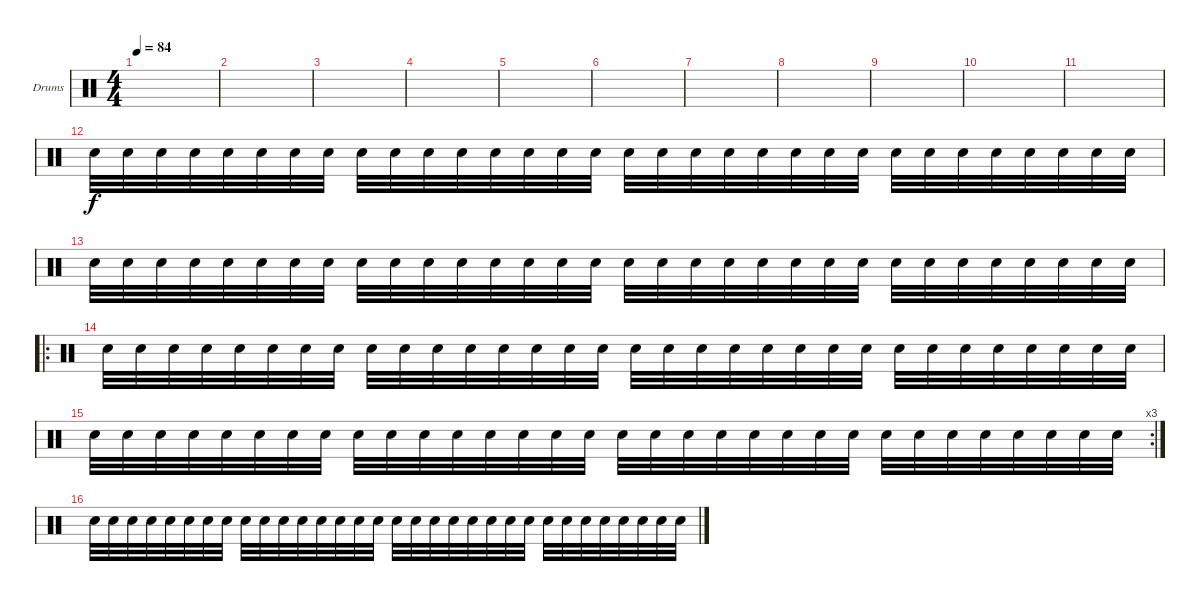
\defaultSystemsLayout 4
\bracketExtendMode groupsimilarinstruments
\firstSystemTrackNameOrientation horizontal
\otherSystemsTrackNameOrientation horizontal
\track ("Drumkit" "Drums") {instrument percussion}
\staff {score}
\articulation defaults
\ts (4 4)
\tempo 84
\clef neutral
\scale
0.333333
\ks c
|
\scale
0.333333 |
\scale
0.333333 |
\scale
0.333333 |
\scale
0.333333 |
\scale
0.333333 |
\scale
0.333333 |
\scale
0.333333 |
\scale
0.333333 |
\scale
0.333333 |
\scale
0.333333 |
\scale
0.311475 "Snare (hit) 2".32 "Snare (hit) 2".32 "Snare (hit) 2".32 "Snare (hit) 2".32 "Snare (hit) 2".32 "Snare (hit) 2".32 "Snare (hit) 2".32 "Snare (hit) 2".32 "Snare (hit) 2".32 "Snare (hit) 2".32 "Snare (hit) 2".32 "Snare (hit) 2".32 "Snare (hit) 2".32 "Snare (hit) 2".32 "Snare (hit) 2".32 "Snare (hit) 2".32 "Snare (hit) 2".32 "Snare (hit) 2".32 "Snare (hit) 2".32 "Snare (hit) 2".32 "Snare (hit) 2".32 "Snare (hit) 2".32 "Snare (hit) 2".32 "Snare (hit) 2".32 "Snare (hit) 2".32 "Snare (hit) 2".32 "Snare (hit) 2".32 "Snare (hit) 2".32 "Snare (hit) 2".32 "Snare (hit) 2".32 "Snare (hit) 2".32 "Snare (hit) 2".32 |
\scale
0.311475 "Snare (hit) 2".32 "Snare (hit) 2".32 "Snare (hit) 2".32 "Snare (hit) 2".32 "Snare (hit) 2".32 "Snare (hit) 2".32 "Snare (hit) 2".32 "Snare (hit) 2".32 "Snare (hit) 2".32 "Snare (hit) 2".32 "Snare (hit) 2".32 "Snare (hit) 2".32 "Snare (hit) 2".32 "Snare (hit) 2".32 "Snare (hit) 2".32 "Snare (hit) 2".32 "Snare (hit) 2".32 "Snare (hit) 2".32 "Snare (hit) 2".32 "Snare (hit) 2".32 "Snare (hit) 2".32 "Snare (hit) 2".32 "Snare (hit) 2".32 "Snare (hit) 2".32 "Snare (hit) 2".32 "Snare (hit) 2".32 "Snare (hit) 2".32 "Snare (hit) 2".32 "Snare (hit) 2".32 "Snare (hit) 2".32 "Snare (hit) 2".32 "Snare (hit) 2".32 |
\ro
\scale
0.377049 "Snare (hit) 2".32 "Snare (hit) 2".32 "Snare (hit) 2".32 "Snare (hit) 2".32 "Snare (hit) 2".32 "Snare (hit) 2".32 "Snare (hit) 2".32 "Snare (hit) 2".32 "Snare (hit) 2".32 "Snare (hit) 2".32 "Snare (hit) 2".32 "Snare (hit) 2".32 "Snare (hit) 2".32 "Snare (hit) 2".32 "Snare (hit) 2".32 "Snare (hit) 2".32 "Snare (hit) 2".32 "Snare (hit) 2".32 "Snare (hit) 2".32 "Snare (hit) 2".32 "Snare (hit) 2".32 "Snare (hit) 2".32 "Snare (hit) 2".32 "Snare (hit) 2".32 "Snare (hit) 2".32 "Snare (hit) 2".32 "Snare (hit) 2".32 "Snare (hit) 2".32 "Snare (hit) 2".32 "Snare (hit) 2".32 "Snare (hit) 2".32 "Snare (hit) 2".32 |
\rc 3
\scale
0.355932 "Snare (hit) 2".32 "Snare (hit) 2".32 "Snare (hit) 2".32 "Snare (hit) 2".32 "Snare (hit) 2".32 "Snare (hit) 2".32 "Snare (hit) 2".32 "Snare (hit) 2".32 "Snare (hit) 2".32 "Snare (hit) 2".32 "Snare (hit) 2".32 "Snare (hit) 2".32 "Snare (hit) 2".32 "Snare (hit) 2".32 "Snare (hit) 2".32 "Snare (hit) 2".32 "Snare (hit) 2".32 "Snare (hit) 2".32 "Snare (hit) 2".32 "Snare (hit) 2".32 "Snare (hit) 2".32 "Snare (hit) 2".32 "Snare (hit) 2".32 "Snare (hit) 2".32 "Snare (hit) 2".32 "Snare (hit) 2".32 "Snare (hit) 2".32 "Snare (hit) 2".32 "Snare (hit) 2".32 "Snare (hit) 2".32 "Snare (hit) 2".32 "Snare (hit) 2".32 |
\scale
0.322034 "Snare (hit) 2".32 "Snare (hit) 2".32 "Snare (hit) 2".32 "Snare (hit) 2".32 "Snare (hit) 2".32 "Snare (hit) 2".32 "Snare (hit) 2".32 "Snare (hit) 2".32 "Snare (hit) 2".32 "Snare (hit) 2".32 "Snare (hit) 2".32 "Snare (hit) 2".32 "Snare (hit) 2".32 "Snare (hit) 2".32 "Snare (hit) 2".32 "Snare (hit) 2".32 "Snare (hit) 2".32 "Snare (hit) 2".32 "Snare (hit) 2".32 "Snare (hit) 2".32 "Snare (hit) 2".32 "Snare (hit) 2".32 "Snare (hit) 2".32 "Snare (hit) 2".32 "Snare (hit) 2".32 "Snare (hit) 2".32 "Snare (hit) 2".32 "Snare (hit) 2".32 "Snare (hit) 2".32 "Snare (hit) 2".32 "Snare (hit) 2".32 "Snare (hit) 2".32
